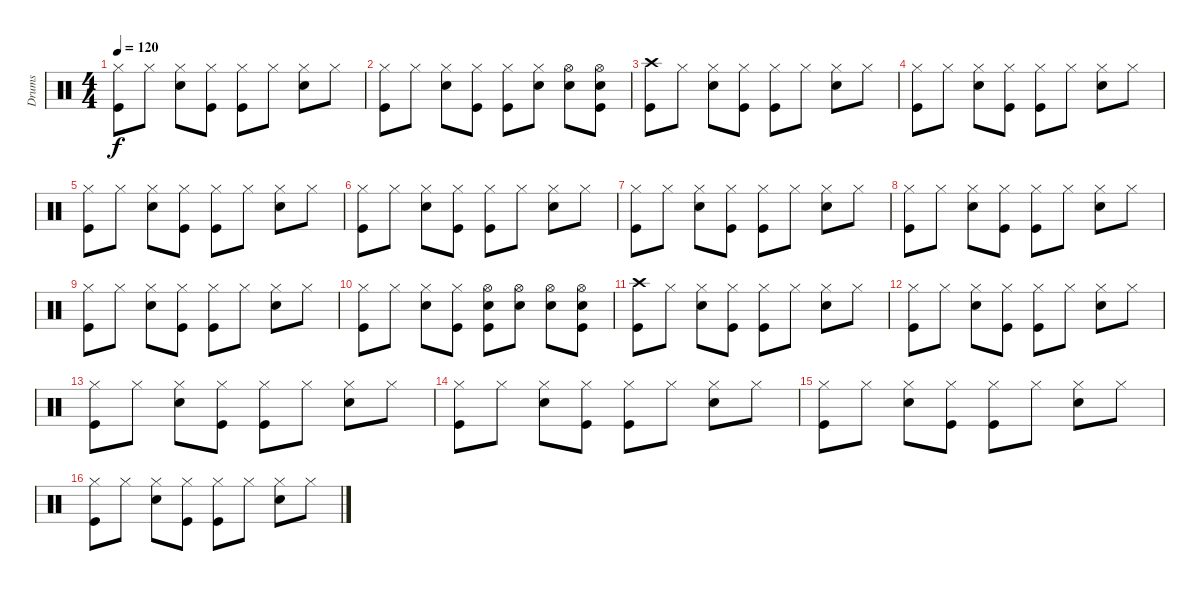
\track ("Drums" "Drums") {instrument percussion}
\staff {score}
\articulation defaults
\ts (4 4)
\tempo 120
\clef neutral
\ks c
("Kick (hit)" "Hi-Hat (closed)").8{dy f} "Hi-Hat (closed)".8 ("Electric Snare (hit)" "Hi-Hat (closed)").8 ("Kick (hit)" "Hi-Hat (closed)").8 ("Kick (hit)" "Hi-Hat (closed)").8 "Hi-Hat (closed)".8 ("Electric Snare (hit)" "Hi-Hat (closed)").8 "Hi-Hat (closed)".8 |
("Kick (hit)" "Hi-Hat (closed)").8 "Hi-Hat (closed)".8 ("Electric Snare (hit)" "Hi-Hat (closed)").8 ("Kick (hit)" "Hi-Hat (closed)").8 ("Kick (hit)" "Hi-Hat (closed)").8 ("Electric Snare (hit)" "Hi-Hat (closed)").8 ("Electric Snare (hit)" "Hi-Hat (open)").8 ("Kick (hit)" "Electric Snare (hit)" "Hi-Hat (open)").8 |
("Kick (hit)" "Crash high (hit)").8 "Hi-Hat (closed)".8 ("Electric Snare (hit)" "Hi-Hat (closed)").8 ("Kick (hit)" "Hi-Hat (closed)").8 ("Kick (hit)" "Hi-Hat (closed)").8 "Hi-Hat (closed)".8 ("Electric Snare (hit)" "Hi-Hat (closed)").8 "Hi-Hat (closed)".8 |
("Kick (hit)" "Hi-Hat (closed)").8 "Hi-Hat (closed)".8 ("Electric Snare (hit)" "Hi-Hat (closed)").8 ("Kick (hit)" "Hi-Hat (closed)").8 ("Kick (hit)" "Hi-Hat (closed)").8 "Hi-Hat (closed)".8 ("Electric Snare (hit)" "Hi-Hat (closed)").8 "Hi-Hat (closed)".8 |
("Kick (hit)" "Hi-Hat (closed)").8 "Hi-Hat (closed)".8 ("Electric Snare (hit)" "Hi-Hat (closed)").8 ("Kick (hit)" "Hi-Hat (closed)").8 ("Kick (hit)" "Hi-Hat (closed)").8 "Hi-Hat (closed)".8 ("Electric Snare (hit)" "Hi-Hat (closed)").8 "Hi-Hat (closed)".8 |
("Kick (hit)" "Hi-Hat (closed)").8 "Hi-Hat (closed)".8 ("Electric Snare (hit)" "Hi-Hat (closed)").8 ("Kick (hit)" "Hi-Hat (closed)").8 ("Kick (hit)" "Hi-Hat (closed)").8 "Hi-Hat (closed)".8 ("Electric Snare (hit)" "Hi-Hat (closed)").8 "Hi-Hat (closed)".8 |
("Kick (hit)" "Hi-Hat (closed)").8 "Hi-Hat (closed)".8 ("Electric Snare (hit)" "Hi-Hat (closed)").8 ("Kick (hit)" "Hi-Hat (closed)").8 ("Kick (hit)" "Hi-Hat (closed)").8 "Hi-Hat (closed)".8 ("Electric Snare (hit)" "Hi-Hat (closed)").8 "Hi-Hat (closed)".8 |
("Kick (hit)" "Hi-Hat (closed)").8 "Hi-Hat (closed)".8 ("Electric Snare (hit)" "Hi-Hat (closed)").8 ("Kick (hit)" "Hi-Hat (closed)").8 ("Kick (hit)" "Hi-Hat (closed)").8 "Hi-Hat (closed)".8 ("Electric Snare (hit)" "Hi-Hat (closed)").8 "Hi-Hat (closed)".8 |
("Kick (hit)" "Hi-Hat (closed)").8 "Hi-Hat (closed)".8 ("Electric Snare (hit)" "Hi-Hat (closed)").8 ("Kick (hit)" "Hi-Hat (closed)").8 ("Kick (hit)" "Hi-Hat (closed)").8 "Hi-Hat (closed)".8 ("Electric Snare (hit)" "Hi-Hat (closed)").8 "Hi-Hat (closed)".8 |
("Kick (hit)" "Hi-Hat (closed)").8 "Hi-Hat (closed)".8 ("Electric Snare (hit)" "Hi-Hat (closed)").8 ("Kick (hit)" "Hi-Hat (closed)").8 ("Kick (hit)" "Electric Snare (hit)" "Hi-Hat (open)").8 ("Electric Snare (hit)" "Hi-Hat (open)").8 ("Electric Snare (hit)" "Hi-Hat (open)").8 ("Kick (hit)" "Electric Snare (hit)" "Hi-Hat (open)").8 |
("Kick (hit)" "Crash high (hit)").8 "Hi-Hat (closed)".8 ("Electric Snare (hit)" "Hi-Hat (closed)").8 ("Kick (hit)" "Hi-Hat (closed)").8 ("Kick (hit)" "Hi-Hat (closed)").8 "Hi-Hat (closed)".8 ("Electric Snare (hit)" "Hi-Hat (closed)").8 "Hi-Hat (closed)".8 |
("Kick (hit)" "Hi-Hat (closed)").8 "Hi-Hat (closed)".8 ("Electric Snare (hit)" "Hi-Hat (closed)").8 ("Kick (hit)" "Hi-Hat (closed)").8 ("Kick (hit)" "Hi-Hat (closed)").8 "Hi-Hat (closed)".8 ("Electric Snare (hit)" "Hi-Hat (closed)").8 "Hi-Hat (closed)".8 |
("Kick (hit)" "Hi-Hat (closed)").8 "Hi-Hat (closed)".8 ("Electric Snare (hit)" "Hi-Hat (closed)").8 ("Kick (hit)" "Hi-Hat (closed)").8 ("Kick (hit)" "Hi-Hat (closed)").8 "Hi-Hat (closed)".8 ("Electric Snare (hit)" "Hi-Hat (closed)").8 "Hi-Hat (closed)".8 |
("Kick (hit)" "Hi-Hat (closed)").8 "Hi-Hat (closed)".8 ("Electric Snare (hit)" "Hi-Hat (closed)").8 ("Kick (hit)" "Hi-Hat (closed)").8 ("Kick (hit)" "Hi-Hat (closed)").8 "Hi-Hat (closed)".8 ("Electric Snare (hit)" "Hi-Hat (closed)").8 "Hi-Hat (closed)".8 |
("Kick (hit)" "Hi-Hat (closed)").8 "Hi-Hat (closed)".8 ("Electric Snare (hit)" "Hi-Hat (closed)").8 ("Kick (hit)" "Hi-Hat (closed)").8 ("Kick (hit)" "Hi-Hat (closed)").8 "Hi-Hat (closed)".8 ("Electric Snare (hit)" "Hi-Hat (closed)").8 "Hi-Hat (closed)".8 |
("Kick (hit)" "Hi-Hat (closed)").8 "Hi-Hat (closed)".8 ("Electric Snare (hit)" "Hi-Hat (closed)").8 ("Kick (hit)" "Hi-Hat (closed)").8 ("Kick (hit)" "Hi-Hat (closed)").8 "Hi-Hat (closed)".8 ("Electric Snare (hit)" "Hi-Hat (closed)").8 "Hi-Hat (closed)".8
